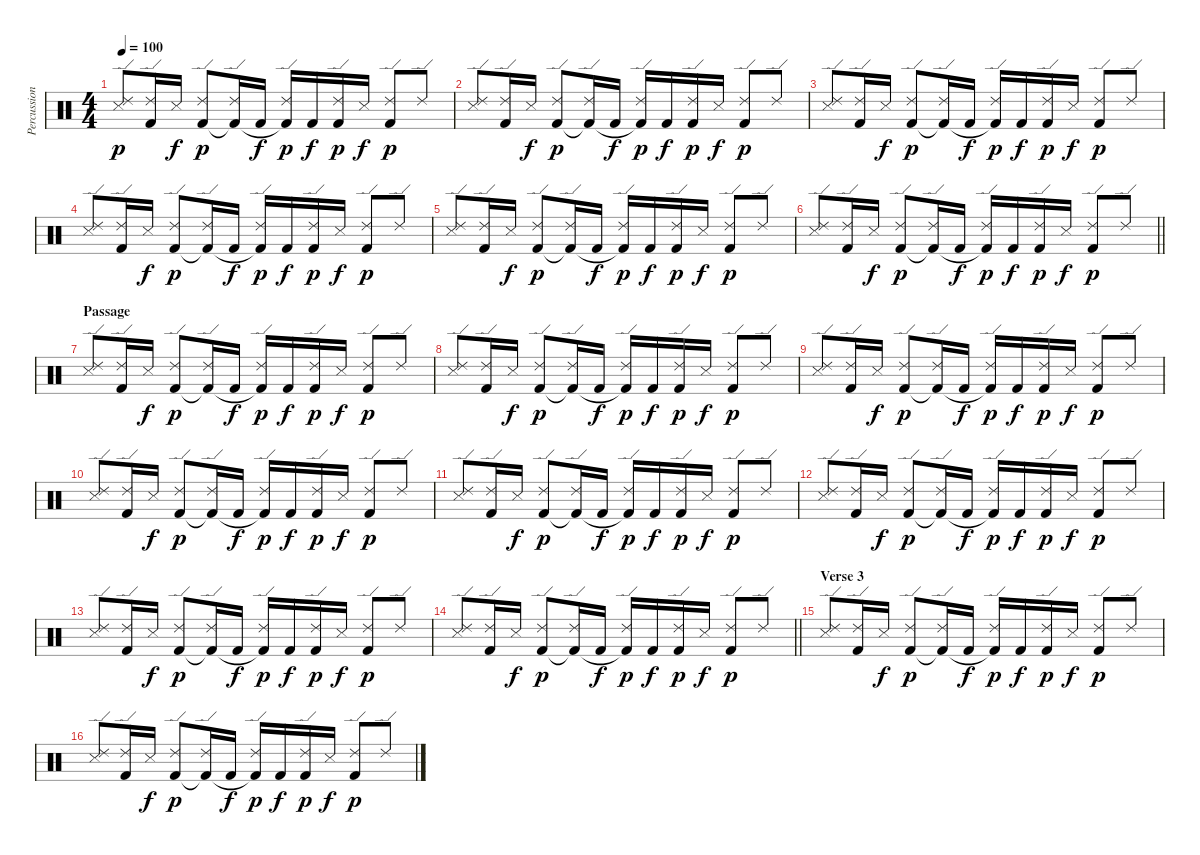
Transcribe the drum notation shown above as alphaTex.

\track ("Percussion" "Percussion") {instrument percussion}
\staff {score}
\articulation defaults
\ts (4 4)
\tempo 100
\clef neutral
\ks c
("Ride (edge) 2" "Snare (side stick) 3").8{dy p} ("Ride (edge) 2" "Kick (hit) 2").16 "Snare (side stick) 3".16{dy f} ("Ride (edge) 2" "Kick (hit) 2").8{dy p} ("Ride (edge) 2" "Kick (hit) 2"{t}).16 "Kick (hit) 2".16{dy f} ("Ride (edge) 2" "Kick (hit) 2"{t}).16{dy p} "Kick (hit) 2".16{dy f} ("Ride (edge) 2" "Kick (hit) 2").16{dy p} "Snare (side stick) 3".16{dy f} ("Ride (edge) 2" "Kick (hit) 2").8{dy p} "Ride (edge) 2".8 |
("Ride (edge) 2" "Snare (side stick) 3").8 ("Ride (edge) 2" "Kick (hit) 2").16 "Snare (side stick) 3".16{dy f} ("Ride (edge) 2" "Kick (hit) 2").8{dy p} ("Ride (edge) 2" "Kick (hit) 2"{t}).16 "Kick (hit) 2".16{dy f} ("Ride (edge) 2" "Kick (hit) 2"{t}).16{dy p} "Kick (hit) 2".16{dy f} ("Ride (edge) 2" "Kick (hit) 2").16{dy p} "Snare (side stick) 3".16{dy f} ("Ride (edge) 2" "Kick (hit) 2").8{dy p} "Ride (edge) 2".8 |
("Ride (edge) 2" "Snare (side stick) 3").8 ("Ride (edge) 2" "Kick (hit) 2").16 "Snare (side stick) 3".16{dy f} ("Ride (edge) 2" "Kick (hit) 2").8{dy p} ("Ride (edge) 2" "Kick (hit) 2"{t}).16 "Kick (hit) 2".16{dy f} ("Ride (edge) 2" "Kick (hit) 2"{t}).16{dy p} "Kick (hit) 2".16{dy f} ("Ride (edge) 2" "Kick (hit) 2").16{dy p} "Snare (side stick) 3".16{dy f} ("Ride (edge) 2" "Kick (hit) 2").8{dy p} "Ride (edge) 2".8 |
("Ride (edge) 2" "Snare (side stick) 3").8 ("Ride (edge) 2" "Kick (hit) 2").16 "Snare (side stick) 3".16{dy f} ("Ride (edge) 2" "Kick (hit) 2").8{dy p} ("Ride (edge) 2" "Kick (hit) 2"{t}).16 "Kick (hit) 2".16{dy f} ("Ride (edge) 2" "Kick (hit) 2"{t}).16{dy p} "Kick (hit) 2".16{dy f} ("Ride (edge) 2" "Kick (hit) 2").16{dy p} "Snare (side stick) 3".16{dy f} ("Ride (edge) 2" "Kick (hit) 2").8{dy p} "Ride (edge) 2".8 |
("Ride (edge) 2" "Snare (side stick) 3").8 ("Ride (edge) 2" "Kick (hit) 2").16 "Snare (side stick) 3".16{dy f} ("Ride (edge) 2" "Kick (hit) 2").8{dy p} ("Ride (edge) 2" "Kick (hit) 2"{t}).16 "Kick (hit) 2".16{dy f} ("Ride (edge) 2" "Kick (hit) 2"{t}).16{dy p} "Kick (hit) 2".16{dy f} ("Ride (edge) 2" "Kick (hit) 2").16{dy p} "Snare (side stick) 3".16{dy f} ("Ride (edge) 2" "Kick (hit) 2").8{dy p} "Ride (edge) 2".8 |
\barLineRight lightlight
("Ride (edge) 2" "Snare (side stick) 3").8 ("Ride (edge) 2" "Kick (hit) 2").16 "Snare (side stick) 3".16{dy f} ("Ride (edge) 2" "Kick (hit) 2").8{dy p} ("Ride (edge) 2" "Kick (hit) 2"{t}).16 "Kick (hit) 2".16{dy f} ("Ride (edge) 2" "Kick (hit) 2"{t}).16{dy p} "Kick (hit) 2".16{dy f} ("Ride (edge) 2" "Kick (hit) 2").16{dy p} "Snare (side stick) 3".16{dy f} ("Ride (edge) 2" "Kick (hit) 2").8{dy p} "Ride (edge) 2".8 |
\section ("" "Passage")
("Ride (edge) 2" "Snare (side stick) 3").8 ("Ride (edge) 2" "Kick (hit) 2").16 "Snare (side stick) 3".16{dy f} ("Ride (edge) 2" "Kick (hit) 2").8{dy p} ("Ride (edge) 2" "Kick (hit) 2"{t}).16 "Kick (hit) 2".16{dy f} ("Ride (edge) 2" "Kick (hit) 2"{t}).16{dy p} "Kick (hit) 2".16{dy f} ("Ride (edge) 2" "Kick (hit) 2").16{dy p} "Snare (side stick) 3".16{dy f} ("Ride (edge) 2" "Kick (hit) 2").8{dy p} "Ride (edge) 2".8 |
("Ride (edge) 2" "Snare (side stick) 3").8 ("Ride (edge) 2" "Kick (hit) 2").16 "Snare (side stick) 3".16{dy f} ("Ride (edge) 2" "Kick (hit) 2").8{dy p} ("Ride (edge) 2" "Kick (hit) 2"{t}).16 "Kick (hit) 2".16{dy f} ("Ride (edge) 2" "Kick (hit) 2"{t}).16{dy p} "Kick (hit) 2".16{dy f} ("Ride (edge) 2" "Kick (hit) 2").16{dy p} "Snare (side stick) 3".16{dy f} ("Ride (edge) 2" "Kick (hit) 2").8{dy p} "Ride (edge) 2".8 |
("Ride (edge) 2" "Snare (side stick) 3").8 ("Ride (edge) 2" "Kick (hit) 2").16 "Snare (side stick) 3".16{dy f} ("Ride (edge) 2" "Kick (hit) 2").8{dy p} ("Ride (edge) 2" "Kick (hit) 2"{t}).16 "Kick (hit) 2".16{dy f} ("Ride (edge) 2" "Kick (hit) 2"{t}).16{dy p} "Kick (hit) 2".16{dy f} ("Ride (edge) 2" "Kick (hit) 2").16{dy p} "Snare (side stick) 3".16{dy f} ("Ride (edge) 2" "Kick (hit) 2").8{dy p} "Ride (edge) 2".8 |
("Ride (edge) 2" "Snare (side stick) 3").8 ("Ride (edge) 2" "Kick (hit) 2").16 "Snare (side stick) 3".16{dy f} ("Ride (edge) 2" "Kick (hit) 2").8{dy p} ("Ride (edge) 2" "Kick (hit) 2"{t}).16 "Kick (hit) 2".16{dy f} ("Ride (edge) 2" "Kick (hit) 2"{t}).16{dy p} "Kick (hit) 2".16{dy f} ("Ride (edge) 2" "Kick (hit) 2").16{dy p} "Snare (side stick) 3".16{dy f} ("Ride (edge) 2" "Kick (hit) 2").8{dy p} "Ride (edge) 2".8 |
("Ride (edge) 2" "Snare (side stick) 3").8 ("Ride (edge) 2" "Kick (hit) 2").16 "Snare (side stick) 3".16{dy f} ("Ride (edge) 2" "Kick (hit) 2").8{dy p} ("Ride (edge) 2" "Kick (hit) 2"{t}).16 "Kick (hit) 2".16{dy f} ("Ride (edge) 2" "Kick (hit) 2"{t}).16{dy p} "Kick (hit) 2".16{dy f} ("Ride (edge) 2" "Kick (hit) 2").16{dy p} "Snare (side stick) 3".16{dy f} ("Ride (edge) 2" "Kick (hit) 2").8{dy p} "Ride (edge) 2".8 |
("Ride (edge) 2" "Snare (side stick) 3").8 ("Ride (edge) 2" "Kick (hit) 2").16 "Snare (side stick) 3".16{dy f} ("Ride (edge) 2" "Kick (hit) 2").8{dy p} ("Ride (edge) 2" "Kick (hit) 2"{t}).16 "Kick (hit) 2".16{dy f} ("Ride (edge) 2" "Kick (hit) 2"{t}).16{dy p} "Kick (hit) 2".16{dy f} ("Ride (edge) 2" "Kick (hit) 2").16{dy p} "Snare (side stick) 3".16{dy f} ("Ride (edge) 2" "Kick (hit) 2").8{dy p} "Ride (edge) 2".8 |
("Ride (edge) 2" "Snare (side stick) 3").8 ("Ride (edge) 2" "Kick (hit) 2").16 "Snare (side stick) 3".16{dy f} ("Ride (edge) 2" "Kick (hit) 2").8{dy p} ("Ride (edge) 2" "Kick (hit) 2"{t}).16 "Kick (hit) 2".16{dy f} ("Ride (edge) 2" "Kick (hit) 2"{t}).16{dy p} "Kick (hit) 2".16{dy f} ("Ride (edge) 2" "Kick (hit) 2").16{dy p} "Snare (side stick) 3".16{dy f} ("Ride (edge) 2" "Kick (hit) 2").8{dy p} "Ride (edge) 2".8 |
\barLineRight lightlight
("Ride (edge) 2" "Snare (side stick) 3").8 ("Ride (edge) 2" "Kick (hit) 2").16 "Snare (side stick) 3".16{dy f} ("Ride (edge) 2" "Kick (hit) 2").8{dy p} ("Ride (edge) 2" "Kick (hit) 2"{t}).16 "Kick (hit) 2".16{dy f} ("Ride (edge) 2" "Kick (hit) 2"{t}).16{dy p} "Kick (hit) 2".16{dy f} ("Ride (edge) 2" "Kick (hit) 2").16{dy p} "Snare (side stick) 3".16{dy f} ("Ride (edge) 2" "Kick (hit) 2").8{dy p} "Ride (edge) 2".8 |
\section ("" "Verse 3")
("Ride (edge) 2" "Snare (side stick) 3").8 ("Ride (edge) 2" "Kick (hit) 2").16 "Snare (side stick) 3".16{dy f} ("Ride (edge) 2" "Kick (hit) 2").8{dy p} ("Ride (edge) 2" "Kick (hit) 2"{t}).16 "Kick (hit) 2".16{dy f} ("Ride (edge) 2" "Kick (hit) 2"{t}).16{dy p} "Kick (hit) 2".16{dy f} ("Ride (edge) 2" "Kick (hit) 2").16{dy p} "Snare (side stick) 3".16{dy f} ("Ride (edge) 2" "Kick (hit) 2").8{dy p} "Ride (edge) 2".8 |
("Ride (edge) 2" "Snare (side stick) 3").8 ("Ride (edge) 2" "Kick (hit) 2").16 "Snare (side stick) 3".16{dy f} ("Ride (edge) 2" "Kick (hit) 2").8{dy p} ("Ride (edge) 2" "Kick (hit) 2"{t}).16 "Kick (hit) 2".16{dy f} ("Ride (edge) 2" "Kick (hit) 2"{t}).16{dy p} "Kick (hit) 2".16{dy f} ("Ride (edge) 2" "Kick (hit) 2").16{dy p} "Snare (side stick) 3".16{dy f} ("Ride (edge) 2" "Kick (hit) 2").8{dy p} "Ride (edge) 2".8
